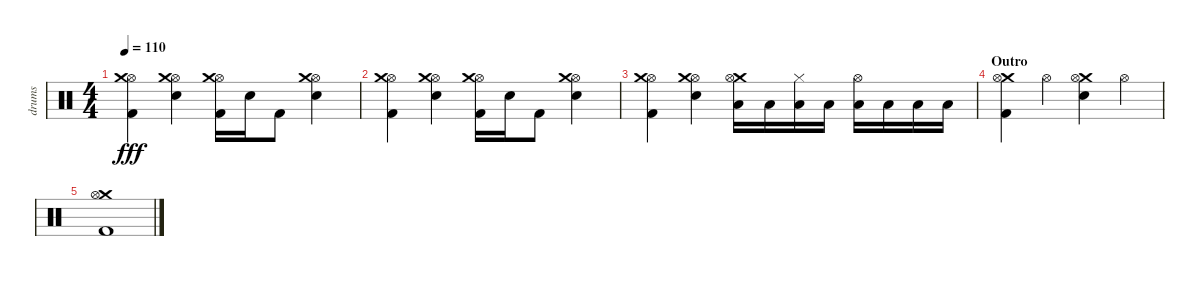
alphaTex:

\track ("drums" "drums") {instrument percussion}
\staff {score}
\articulation defaults
\ts (4 4)
\tempo 110
\clef neutral
\ks c
("Kick (hit) 2" "Hi-Hat (open)" "Crash medium (hit)").4{dy fff} ("Electric Snare (hit)" "Hi-Hat (open)" "Crash medium (hit)").4 ("Kick (hit) 2" "Hi-Hat (open)" "Crash medium (hit)").16 "Electric Snare (hit)".16 "Kick (hit) 2".8 ("Electric Snare (hit)" "Hi-Hat (open)" "Crash medium (hit)").4 |
("Kick (hit) 2" "Hi-Hat (open)" "Crash medium (hit)").4 ("Electric Snare (hit)" "Hi-Hat (open)" "Crash medium (hit)").4 ("Kick (hit) 2" "Hi-Hat (open)" "Crash medium (hit)").16 "Electric Snare (hit)".16 "Kick (hit) 2".8 ("Electric Snare (hit)" "Hi-Hat (open)" "Crash medium (hit)").4 |
("Kick (hit) 2" "Hi-Hat (open)" "Crash medium (hit)").4 ("Electric Snare (hit)" "Hi-Hat (open)" "Crash medium (hit)").4 ("Crash medium (hit)" "Hi-Hat (open)" "Low Tom (hit)").16 "Low Tom (hit)".16 ("Hi-Hat (closed)" "Low Tom (hit)").16 "Low Tom (hit)".16 ("Hi-Hat (open)" "Low Floor Tom (hit)").16 "Low Floor Tom (hit)".16 "Low Floor Tom (hit)".16 "Low Floor Tom (hit)".16 |
\section ("" "Outro")
("Crash medium (hit)" "Hi-Hat (open)" "Kick (hit) 2").4 "Hi-Hat (open)".4 ("Crash medium (hit)" "Electric Snare (hit)" "Hi-Hat (open)").4 "Hi-Hat (open)".4 |
("Crash medium (hit)" "Hi-Hat (open)" "Kick (hit) 2").1
